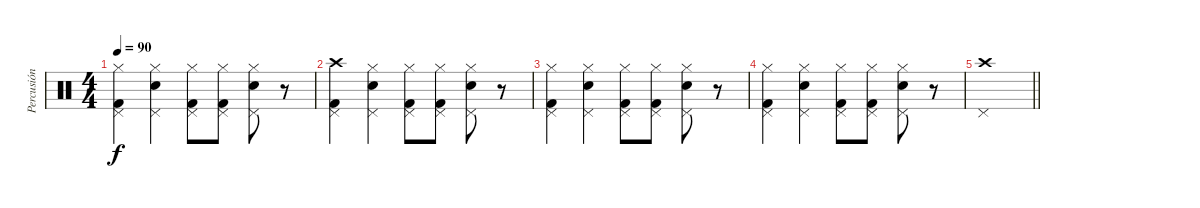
\track ("Percusión" "Percusión") {instrument percussion}
\staff {score}
\articulation defaults
\ts (4 4)
\tempo 90
\clef neutral
\ks c
("Hi-Hat (closed)" "Kick (hit) 2" "Pedal Hi-Hat (hit)").4{dy f} ("Hi-Hat (closed)" "Snare (hit) 2" "Pedal Hi-Hat (hit)").4 ("Hi-Hat (closed)" "Kick (hit) 2" "Pedal Hi-Hat (hit)").8 ("Hi-Hat (closed)" "Kick (hit) 2" "Pedal Hi-Hat (hit)").8 ("Hi-Hat (closed)" "Snare (hit) 2" "Pedal Hi-Hat (hit)").8 r.8 |
("Crash high (hit)" "Kick (hit) 2" "Pedal Hi-Hat (hit)").4 ("Hi-Hat (closed)" "Snare (hit) 2" "Pedal Hi-Hat (hit)").4 ("Hi-Hat (closed)" "Kick (hit) 2" "Pedal Hi-Hat (hit)").8 ("Hi-Hat (closed)" "Kick (hit) 2" "Pedal Hi-Hat (hit)").8 ("Hi-Hat (closed)" "Snare (hit) 2" "Pedal Hi-Hat (hit)").8 r.8 |
("Hi-Hat (closed)" "Kick (hit) 2" "Pedal Hi-Hat (hit)").4 ("Hi-Hat (closed)" "Snare (hit) 2" "Pedal Hi-Hat (hit)").4 ("Hi-Hat (closed)" "Kick (hit) 2" "Pedal Hi-Hat (hit)").8 ("Hi-Hat (closed)" "Kick (hit) 2" "Pedal Hi-Hat (hit)").8 ("Hi-Hat (closed)" "Snare (hit) 2" "Pedal Hi-Hat (hit)").8 r.8 |
("Hi-Hat (closed)" "Kick (hit) 2" "Pedal Hi-Hat (hit)").4 ("Hi-Hat (closed)" "Snare (hit) 2" "Pedal Hi-Hat (hit)").4 ("Hi-Hat (closed)" "Kick (hit) 2" "Pedal Hi-Hat (hit)").8 ("Hi-Hat (closed)" "Kick (hit) 2" "Pedal Hi-Hat (hit)").8 ("Hi-Hat (closed)" "Snare (hit) 2" "Pedal Hi-Hat (hit)").8 r.8 |
\barLineRight lightlight
("Crash high (hit)" "Pedal Hi-Hat (hit)").1
